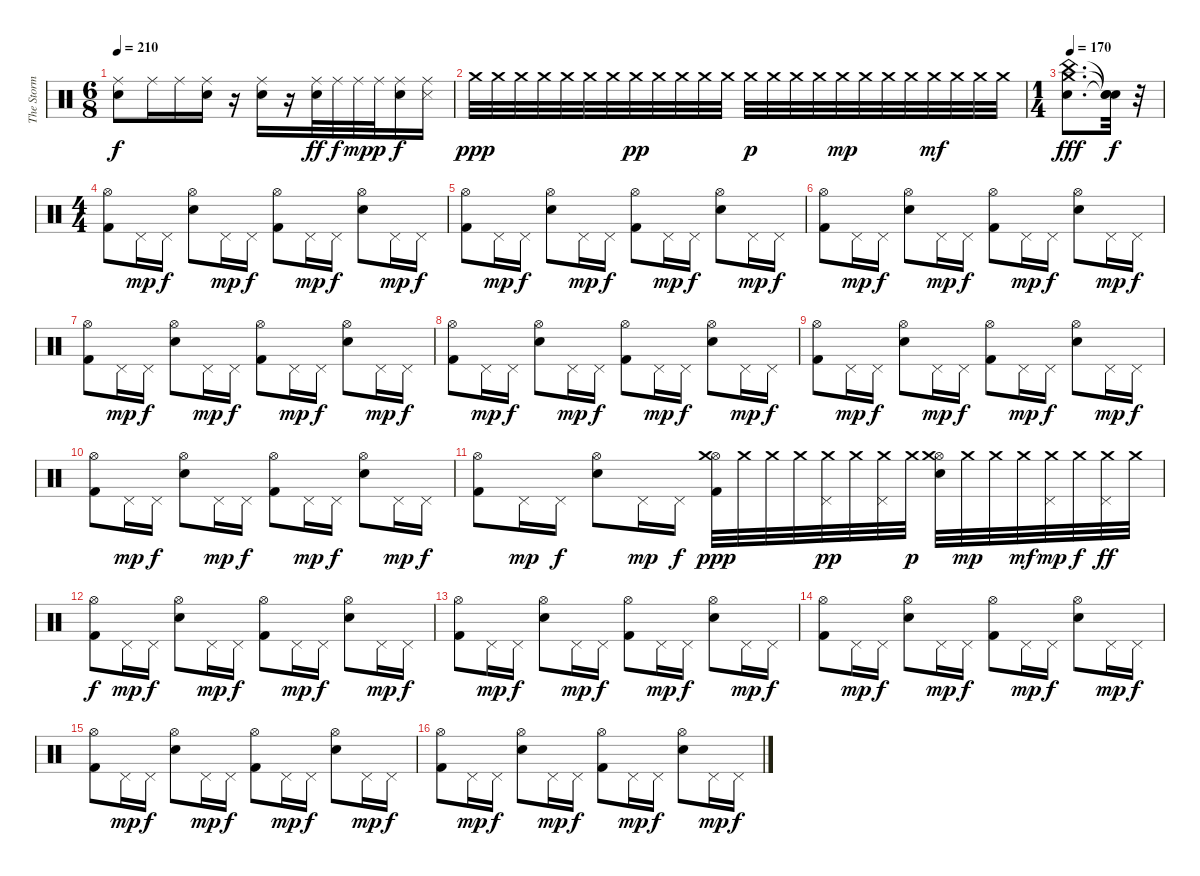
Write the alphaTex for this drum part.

\track ("The Storm" "The Storm") {instrument percussion}
\staff {score}
\articulation defaults
\ts (6 8)
\tempo 210
\clef neutral
\ks c
("Electric Snare (hit)" "Ride (middle)").8{dy f} "Ride (middle)".16 "Ride (middle)".16 ("Ride (middle)" "Electric Snare (hit)").16 r.16 ("Ride (middle)" "Electric Snare (hit)").16 r.16 ("Electric Snare (hit)" "Ride (middle)").32{dy ff} "Ride (middle)".32{dy f} "Ride (middle)".32{dy mp} "Ride (middle)".32{dy p} ("Electric Snare (hit)" "Ride (middle)").16{dy f} ("Ride (middle)" "Metronome (hit)").16 |
"Crash medium (hit)".32{dy ppp} "Crash medium (hit)".32 "Crash medium (hit)".32 "Crash medium (hit)".32 "Crash medium (hit)".32 "Crash medium (hit)".32 "Crash medium (hit)".32 "Crash medium (hit)".32{dy pp} "Crash medium (hit)".32 "Crash medium (hit)".32 "Crash medium (hit)".32 "Crash medium (hit)".32 "Crash medium (hit)".32{dy p} "Crash medium (hit)".32 "Crash medium (hit)".32 "Crash medium (hit)".32 "Crash medium (hit)".32{dy mp} "Crash medium (hit)".32 "Crash medium (hit)".32 "Crash medium (hit)".32 "Crash medium (hit)".32{dy mf} "Crash medium (hit)".32 "Crash medium (hit)".32 "Crash medium (hit)".32 |
\ts (1 4)
\tempo 170
("Electric Snare (hit)" "China (hit)" "Crash medium (hit)").8{d dy fff} ("Snare (hit)"{t} "Snare (hit)"{t} "Snare (hit)"{t}).32{dy f} r.32 |
\ts (4 4)
("Kick (hit) 2" "Hi-Hat (open)").8 "Pedal Hi-Hat (hit)".16{dy mp} "Pedal Hi-Hat (hit)".16{dy f} ("Hi-Hat (open)" "Electric Snare (hit)").8 "Pedal Hi-Hat (hit)".16{dy mp} "Pedal Hi-Hat (hit)".16{dy f} ("Hi-Hat (open)" "Kick (hit) 2").8 "Pedal Hi-Hat (hit)".16{dy mp} "Pedal Hi-Hat (hit)".16{dy f} ("Hi-Hat (open)" "Electric Snare (hit)").8 "Pedal Hi-Hat (hit)".16{dy mp} "Pedal Hi-Hat (hit)".16{dy f} |
("Kick (hit) 2" "Hi-Hat (open)").8 "Pedal Hi-Hat (hit)".16{dy mp} "Pedal Hi-Hat (hit)".16{dy f} ("Electric Snare (hit)" "Hi-Hat (open)").8 "Pedal Hi-Hat (hit)".16{dy mp} "Pedal Hi-Hat (hit)".16{dy f} ("Kick (hit) 2" "Hi-Hat (open)").8 "Pedal Hi-Hat (hit)".16{dy mp} "Pedal Hi-Hat (hit)".16{dy f} ("Hi-Hat (open)" "Electric Snare (hit)").8 "Pedal Hi-Hat (hit)".16{dy mp} "Pedal Hi-Hat (hit)".16{dy f} |
("Kick (hit) 2" "Hi-Hat (open)").8 "Pedal Hi-Hat (hit)".16{dy mp} "Pedal Hi-Hat (hit)".16{dy f} ("Electric Snare (hit)" "Hi-Hat (open)").8 "Pedal Hi-Hat (hit)".16{dy mp} "Pedal Hi-Hat (hit)".16{dy f} ("Hi-Hat (open)" "Kick (hit) 2").8 "Pedal Hi-Hat (hit)".16{dy mp} "Pedal Hi-Hat (hit)".16{dy f} ("Electric Snare (hit)" "Hi-Hat (open)").8 "Pedal Hi-Hat (hit)".16{dy mp} "Pedal Hi-Hat (hit)".16{dy f} |
("Hi-Hat (open)" "Kick (hit) 2").8 "Pedal Hi-Hat (hit)".16{dy mp} "Pedal Hi-Hat (hit)".16{dy f} ("Electric Snare (hit)" "Hi-Hat (open)").8 "Pedal Hi-Hat (hit)".16{dy mp} "Pedal Hi-Hat (hit)".16{dy f} ("Kick (hit) 2" "Hi-Hat (open)").8 "Pedal Hi-Hat (hit)".16{dy mp} "Pedal Hi-Hat (hit)".16{dy f} ("Electric Snare (hit)" "Hi-Hat (open)").8 "Pedal Hi-Hat (hit)".16{dy mp} "Pedal Hi-Hat (hit)".16{dy f} |
("Kick (hit) 2" "Hi-Hat (open)").8 "Pedal Hi-Hat (hit)".16{dy mp} "Pedal Hi-Hat (hit)".16{dy f} ("Electric Snare (hit)" "Hi-Hat (open)").8 "Pedal Hi-Hat (hit)".16{dy mp} "Pedal Hi-Hat (hit)".16{dy f} ("Hi-Hat (open)" "Kick (hit) 2").8 "Pedal Hi-Hat (hit)".16{dy mp} "Pedal Hi-Hat (hit)".16{dy f} ("Hi-Hat (open)" "Electric Snare (hit)").8 "Pedal Hi-Hat (hit)".16{dy mp} "Pedal Hi-Hat (hit)".16{dy f} |
("Hi-Hat (open)" "Kick (hit) 2").8 "Pedal Hi-Hat (hit)".16{dy mp} "Pedal Hi-Hat (hit)".16{dy f} ("Hi-Hat (open)" "Electric Snare (hit)").8 "Pedal Hi-Hat (hit)".16{dy mp} "Pedal Hi-Hat (hit)".16{dy f} ("Hi-Hat (open)" "Kick (hit) 2").8 "Pedal Hi-Hat (hit)".16{dy mp} "Pedal Hi-Hat (hit)".16{dy f} ("Electric Snare (hit)" "Hi-Hat (open)").8 "Pedal Hi-Hat (hit)".16{dy mp} "Pedal Hi-Hat (hit)".16{dy f} |
("Hi-Hat (open)" "Kick (hit) 2").8 "Pedal Hi-Hat (hit)".16{dy mp} "Pedal Hi-Hat (hit)".16{dy f} ("Electric Snare (hit)" "Hi-Hat (open)").8 "Pedal Hi-Hat (hit)".16{dy mp} "Pedal Hi-Hat (hit)".16{dy f} ("Hi-Hat (open)" "Kick (hit) 2").8 "Pedal Hi-Hat (hit)".16{dy mp} "Pedal Hi-Hat (hit)".16{dy f} ("Electric Snare (hit)" "Hi-Hat (open)").8 "Pedal Hi-Hat (hit)".16{dy mp} "Pedal Hi-Hat (hit)".16{dy f} |
("Kick (hit) 2" "Hi-Hat (open)").8 "Pedal Hi-Hat (hit)".16{dy mp} "Pedal Hi-Hat (hit)".16{dy f} ("Electric Snare (hit)" "Hi-Hat (open)").8 "Pedal Hi-Hat (hit)".16{dy mp} "Pedal Hi-Hat (hit)".16{dy f} ("Hi-Hat (open)" "Kick (hit) 2" "Crash medium (hit)").32{dy ppp} "Crash medium (hit)".32 "Crash medium (hit)".32 "Crash medium (hit)".32 ("Pedal Hi-Hat (hit)" "Crash medium (hit)").32{dy pp} "Crash medium (hit)".32 ("Pedal Hi-Hat (hit)" "Crash medium (hit)").32 "Crash medium (hit)".32{dy p} ("Electric Snare (hit)" "Hi-Hat (open)" "Crash medium (hit)").32 "Crash medium (hit)".32{dy mp} "Crash medium (hit)".32 "Crash medium (hit)".32{dy mf} ("Pedal Hi-Hat (hit)" "Crash medium (hit)").32{dy mp} "Crash medium (hit)".32{dy f} ("Pedal Hi-Hat (hit)" "Crash medium (hit)").32{dy ff} "Crash medium (hit)".32 |
("Kick (hit) 2" "Hi-Hat (open)").8{dy f} "Pedal Hi-Hat (hit)".16{dy mp} "Pedal Hi-Hat (hit)".16{dy f} ("Electric Snare (hit)" "Hi-Hat (open)").8 "Pedal Hi-Hat (hit)".16{dy mp} "Pedal Hi-Hat (hit)".16{dy f} ("Hi-Hat (open)" "Kick (hit) 2").8 "Pedal Hi-Hat (hit)".16{dy mp} "Pedal Hi-Hat (hit)".16{dy f} ("Hi-Hat (open)" "Electric Snare (hit)").8 "Pedal Hi-Hat (hit)".16{dy mp} "Pedal Hi-Hat (hit)".16{dy f} |
("Hi-Hat (open)" "Kick (hit) 2").8 "Pedal Hi-Hat (hit)".16{dy mp} "Pedal Hi-Hat (hit)".16{dy f} ("Electric Snare (hit)" "Hi-Hat (open)").8 "Pedal Hi-Hat (hit)".16{dy mp} "Pedal Hi-Hat (hit)".16{dy f} ("Kick (hit) 2" "Hi-Hat (open)").8 "Pedal Hi-Hat (hit)".16{dy mp} "Pedal Hi-Hat (hit)".16{dy f} ("Electric Snare (hit)" "Hi-Hat (open)").8 "Pedal Hi-Hat (hit)".16{dy mp} "Pedal Hi-Hat (hit)".16{dy f} |
("Hi-Hat (open)" "Kick (hit) 2").8 "Pedal Hi-Hat (hit)".16{dy mp} "Pedal Hi-Hat (hit)".16{dy f} ("Electric Snare (hit)" "Hi-Hat (open)").8 "Pedal Hi-Hat (hit)".16{dy mp} "Pedal Hi-Hat (hit)".16{dy f} ("Kick (hit) 2" "Hi-Hat (open)").8 "Pedal Hi-Hat (hit)".16{dy mp} "Pedal Hi-Hat (hit)".16{dy f} ("Hi-Hat (open)" "Electric Snare (hit)").8 "Pedal Hi-Hat (hit)".16{dy mp} "Pedal Hi-Hat (hit)".16{dy f} |
("Hi-Hat (open)" "Kick (hit) 2").8 "Pedal Hi-Hat (hit)".16{dy mp} "Pedal Hi-Hat (hit)".16{dy f} ("Hi-Hat (open)" "Electric Snare (hit)").8 "Pedal Hi-Hat (hit)".16{dy mp} "Pedal Hi-Hat (hit)".16{dy f} ("Hi-Hat (open)" "Kick (hit) 2").8 "Pedal Hi-Hat (hit)".16{dy mp} "Pedal Hi-Hat (hit)".16{dy f} ("Hi-Hat (open)" "Electric Snare (hit)").8 "Pedal Hi-Hat (hit)".16{dy mp} "Pedal Hi-Hat (hit)".16{dy f} |
("Kick (hit) 2" "Hi-Hat (open)").8 "Pedal Hi-Hat (hit)".16{dy mp} "Pedal Hi-Hat (hit)".16{dy f} ("Electric Snare (hit)" "Hi-Hat (open)").8 "Pedal Hi-Hat (hit)".16{dy mp} "Pedal Hi-Hat (hit)".16{dy f} ("Kick (hit) 2" "Hi-Hat (open)").8 "Pedal Hi-Hat (hit)".16{dy mp} "Pedal Hi-Hat (hit)".16{dy f} ("Hi-Hat (open)" "Electric Snare (hit)").8 "Pedal Hi-Hat (hit)".16{dy mp} "Pedal Hi-Hat (hit)".16{dy f}
